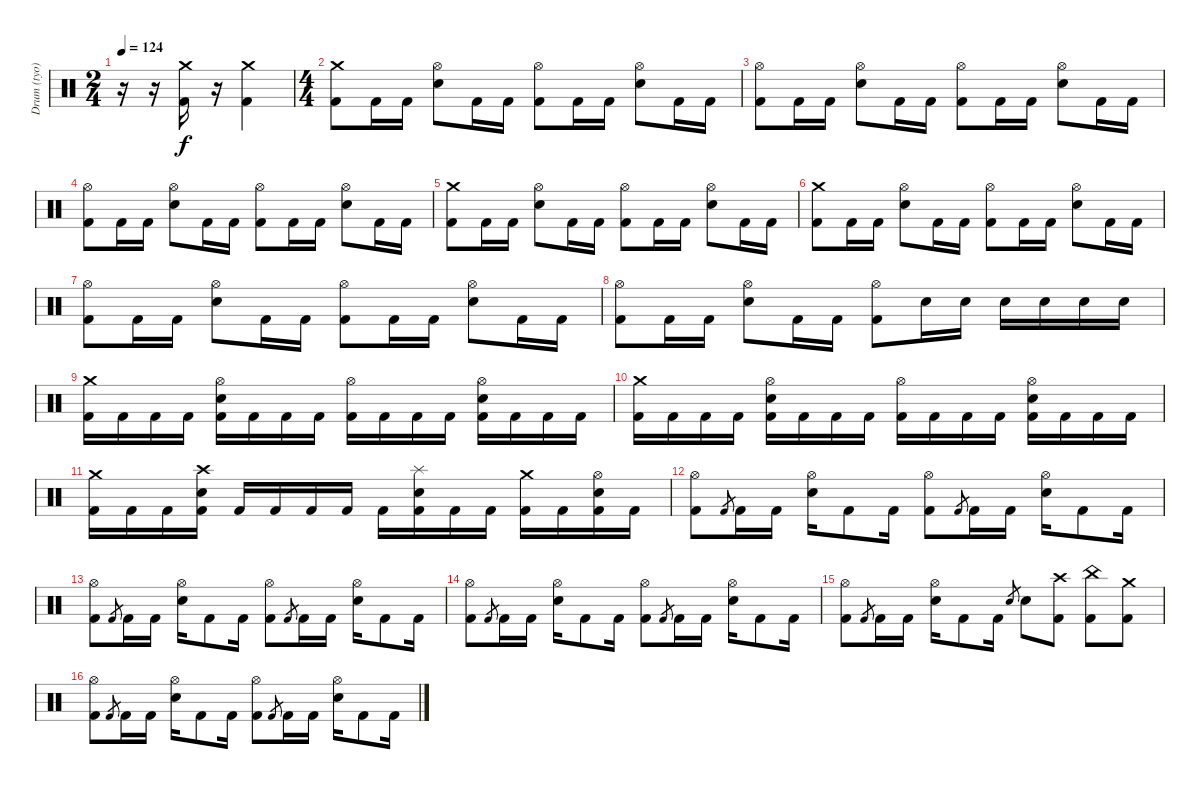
\track ("Drum (tyo)" "Drum (tyo)") {instrument percussion}
\staff {score}
\articulation defaults
\ts (2 4)
\tempo 124
\clef neutral
\ks c
r.16{dy f} r.16 ("Kick (hit) 2" "Crash medium (hit)").16 r.16 ("Kick (hit) 2" "Crash medium (hit)").4 |
\ts (4 4)
("Crash medium (hit)" "Kick (hit) 2").8 "Kick (hit) 2".16 "Kick (hit) 2".16 ("Electric Snare (hit)" "Hi-Hat (open)").8 "Kick (hit) 2".16 "Kick (hit) 2".16 ("Hi-Hat (open)" "Kick (hit) 2").8 "Kick (hit) 2".16 "Kick (hit) 2".16 ("Electric Snare (hit)" "Hi-Hat (open)").8 "Kick (hit) 2".16 "Kick (hit) 2".16 |
("Hi-Hat (open)" "Kick (hit) 2").8 "Kick (hit) 2".16 "Kick (hit) 2".16 ("Electric Snare (hit)" "Hi-Hat (open)").8 "Kick (hit) 2".16 "Kick (hit) 2".16 ("Hi-Hat (open)" "Kick (hit) 2").8 "Kick (hit) 2".16 "Kick (hit) 2".16 ("Electric Snare (hit)" "Hi-Hat (open)").8 "Kick (hit) 2".16 "Kick (hit) 2".16 |
("Hi-Hat (open)" "Kick (hit) 2").8 "Kick (hit) 2".16 "Kick (hit) 2".16 ("Electric Snare (hit)" "Hi-Hat (open)").8 "Kick (hit) 2".16 "Kick (hit) 2".16 ("Hi-Hat (open)" "Kick (hit) 2").8 "Kick (hit) 2".16 "Kick (hit) 2".16 ("Electric Snare (hit)" "Hi-Hat (open)").8 "Kick (hit) 2".16 "Kick (hit) 2".16 |
("Crash medium (hit)" "Kick (hit) 2").8 "Kick (hit) 2".16 "Kick (hit) 2".16 ("Electric Snare (hit)" "Hi-Hat (open)").8 "Kick (hit) 2".16 "Kick (hit) 2".16 ("Hi-Hat (open)" "Kick (hit) 2").8 "Kick (hit) 2".16 "Kick (hit) 2".16 ("Electric Snare (hit)" "Hi-Hat (open)").8 "Kick (hit) 2".16 "Kick (hit) 2".16 |
("Crash medium (hit)" "Kick (hit) 2").8 "Kick (hit) 2".16 "Kick (hit) 2".16 ("Electric Snare (hit)" "Hi-Hat (open)").8 "Kick (hit) 2".16 "Kick (hit) 2".16 ("Hi-Hat (open)" "Kick (hit) 2").8 "Kick (hit) 2".16 "Kick (hit) 2".16 ("Electric Snare (hit)" "Hi-Hat (open)").8 "Kick (hit) 2".16 "Kick (hit) 2".16 |
("Hi-Hat (open)" "Kick (hit) 2").8 "Kick (hit) 2".16 "Kick (hit) 2".16 ("Electric Snare (hit)" "Hi-Hat (open)").8 "Kick (hit) 2".16 "Kick (hit) 2".16 ("Hi-Hat (open)" "Kick (hit) 2").8 "Kick (hit) 2".16 "Kick (hit) 2".16 ("Electric Snare (hit)" "Hi-Hat (open)").8 "Kick (hit) 2".16 "Kick (hit) 2".16 |
("Hi-Hat (open)" "Kick (hit) 2").8 "Kick (hit) 2".16 "Kick (hit) 2".16 ("Electric Snare (hit)" "Hi-Hat (open)").8 "Kick (hit) 2".16 "Kick (hit) 2".16 ("Hi-Hat (open)" "Kick (hit) 2").8 "Electric Snare (hit)".16 "Electric Snare (hit)".16 "Electric Snare (hit)".16 "Electric Snare (hit)".16 "Electric Snare (hit)".16 "Electric Snare (hit)".16 |
("Kick (hit) 2" "Crash medium (hit)").16 "Kick (hit) 2".16 "Kick (hit) 2".16 "Kick (hit) 2".16 ("Electric Snare (hit)" "Kick (hit) 2" "Hi-Hat (open)").16 "Kick (hit) 2".16 "Kick (hit) 2".16 "Kick (hit) 2".16 ("Kick (hit) 2" "Hi-Hat (open)").16 "Kick (hit) 2".16 "Kick (hit) 2".16 "Kick (hit) 2".16 ("Electric Snare (hit)" "Kick (hit) 2" "Hi-Hat (open)").16 "Kick (hit) 2".16 "Kick (hit) 2".16 "Kick (hit) 2".16 |
("Kick (hit) 2" "Crash medium (hit)").16 "Kick (hit) 2".16 "Kick (hit) 2".16 "Kick (hit) 2".16 ("Electric Snare (hit)" "Kick (hit) 2" "Hi-Hat (open)").16 "Kick (hit) 2".16 "Kick (hit) 2".16 "Kick (hit) 2".16 ("Kick (hit) 2" "Hi-Hat (open)").16 "Kick (hit) 2".16 "Kick (hit) 2".16 "Kick (hit) 2".16 ("Electric Snare (hit)" "Kick (hit) 2" "Hi-Hat (open)").16 "Kick (hit) 2".16 "Kick (hit) 2".16 "Kick (hit) 2".16 |
("Kick (hit) 2" "Crash medium (hit)").16 "Kick (hit) 2".16 "Kick (hit) 2".16 ("Kick (hit) 2" "Electric Snare (hit)" "Crash high (hit)").16 "Kick (hit) 2".16 "Kick (hit) 2".16 "Kick (hit) 2".16 "Kick (hit) 2".16 "Kick (hit) 2".16 ("Electric Snare (hit)" "Kick (hit) 2" "Splash (hit)").16 "Kick (hit) 2".16 "Kick (hit) 2".16 ("Kick (hit) 2" "Crash medium (hit)").16 "Kick (hit) 2".16 ("Electric Snare (hit)" "Kick (hit) 2" "Hi-Hat (open)").16 "Kick (hit) 2".16 |
("Hi-Hat (open)" "Kick (hit) 2").8 "Kick (hit) 2".8{gr} "Kick (hit) 2".16 "Kick (hit) 2".16 ("Hi-Hat (open)" "Electric Snare (hit)").16 "Kick (hit) 2".8 "Kick (hit) 2".16 ("Hi-Hat (open)" "Kick (hit) 2").8 "Kick (hit) 2".8{gr} "Kick (hit) 2".16 "Kick (hit) 2".16 ("Hi-Hat (open)" "Electric Snare (hit)").16 "Kick (hit) 2".8 "Kick (hit) 2".16 |
("Hi-Hat (open)" "Kick (hit) 2").8 "Kick (hit) 2".8{gr} "Kick (hit) 2".16 "Kick (hit) 2".16 ("Hi-Hat (open)" "Electric Snare (hit)").16 "Kick (hit) 2".8 "Kick (hit) 2".16 ("Hi-Hat (open)" "Kick (hit) 2").8 "Kick (hit) 2".8{gr} "Kick (hit) 2".16 "Kick (hit) 2".16 ("Hi-Hat (open)" "Electric Snare (hit)").16 "Kick (hit) 2".8 "Kick (hit) 2".16 |
("Hi-Hat (open)" "Kick (hit) 2").8 "Kick (hit) 2".8{gr} "Kick (hit) 2".16 "Kick (hit) 2".16 ("Hi-Hat (open)" "Electric Snare (hit)").16 "Kick (hit) 2".8 "Kick (hit) 2".16 ("Hi-Hat (open)" "Kick (hit) 2").8 "Kick (hit) 2".8{gr} "Kick (hit) 2".16 "Kick (hit) 2".16 ("Hi-Hat (open)" "Electric Snare (hit)").16 "Kick (hit) 2".8 "Kick (hit) 2".16 |
("Hi-Hat (open)" "Kick (hit) 2").8 "Kick (hit) 2".8{gr} "Kick (hit) 2".16 "Kick (hit) 2".16 ("Hi-Hat (open)" "Electric Snare (hit)").16 "Kick (hit) 2".8 "Kick (hit) 2".16 "Electric Snare (hit)".8{gr} "Electric Snare (hit)".8 ("Kick (hit) 2" "Crash high (hit)").8 ("Kick (hit) 2" "China (hit)").8 ("Kick (hit) 2" "Crash medium (hit)").8 |
("Hi-Hat (open)" "Kick (hit) 2").8 "Kick (hit) 2".8{gr} "Kick (hit) 2".16 "Kick (hit) 2".16 ("Hi-Hat (open)" "Electric Snare (hit)").16 "Kick (hit) 2".8 "Kick (hit) 2".16 ("Hi-Hat (open)" "Kick (hit) 2").8 "Kick (hit) 2".8{gr} "Kick (hit) 2".16 "Kick (hit) 2".16 ("Hi-Hat (open)" "Electric Snare (hit)").16 "Kick (hit) 2".8 "Kick (hit) 2".16
